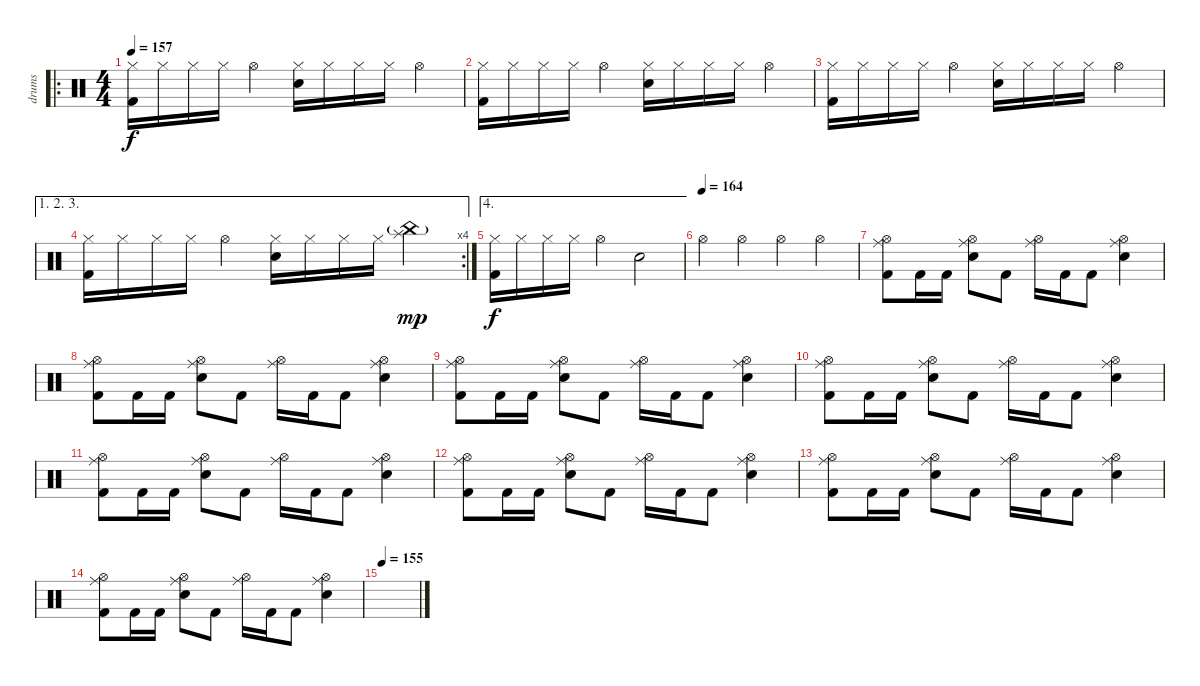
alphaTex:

\track ("drums" "drums") {instrument percussion}
\staff {score}
\articulation defaults
\ro
\ts (4 4)
\tempo 157
\clef neutral
\ks c
("Hi-Hat (closed)" "Kick (hit) 2").16{dy f} "Hi-Hat (closed)".16 "Hi-Hat (closed)".16 "Hi-Hat (closed)".16 "Hi-Hat (open)".4 ("Hi-Hat (closed)" "Electric Snare (hit)").16 "Hi-Hat (closed)".16 "Hi-Hat (closed)".16 "Hi-Hat (closed)".16 "Hi-Hat (open)".4 |
("Hi-Hat (closed)" "Kick (hit) 2").16 "Hi-Hat (closed)".16 "Hi-Hat (closed)".16 "Hi-Hat (closed)".16 "Hi-Hat (open)".4 ("Hi-Hat (closed)" "Electric Snare (hit)").16 "Hi-Hat (closed)".16 "Hi-Hat (closed)".16 "Hi-Hat (closed)".16 "Hi-Hat (open)".4 |
("Hi-Hat (closed)" "Kick (hit) 2").16 "Hi-Hat (closed)".16 "Hi-Hat (closed)".16 "Hi-Hat (closed)".16 "Hi-Hat (open)".4 ("Hi-Hat (closed)" "Electric Snare (hit)").16 "Hi-Hat (closed)".16 "Hi-Hat (closed)".16 "Hi-Hat (closed)".16 "Hi-Hat (open)".4 |
\ae (1 2 3)
\rc 4
("Hi-Hat (closed)" "Kick (hit) 2").16 "Hi-Hat (closed)".16 "Hi-Hat (closed)".16 "Hi-Hat (closed)".16 "Hi-Hat (open)".4 ("Hi-Hat (closed)" "Electric Snare (hit)").16 "Hi-Hat (closed)".16 "Hi-Hat (closed)".16 "Hi-Hat (closed)".16 ("China (hit)"{g} "Splash (hit)").4{dy mp} |
\ae 4
("Hi-Hat (closed)" "Kick (hit) 2").16{dy f} "Hi-Hat (closed)".16 "Hi-Hat (closed)".16 "Hi-Hat (closed)".16 "Hi-Hat (open)".4 "Electric Snare (hit)".2 |
\tempo (164)
"Hi-Hat (open)".4 "Hi-Hat (open)".4 "Hi-Hat (open)".4 "Hi-Hat (open)".4 |
("Hi-Hat (open)" "Ride (middle)" "Kick (hit) 2").8 "Kick (hit) 2".16 "Kick (hit) 2".16 ("Hi-Hat (open)" "Ride (middle)" "Electric Snare (hit)").8 "Kick (hit) 2".8 ("Hi-Hat (open)" "Ride (middle)").16 "Kick (hit) 2".16 "Kick (hit) 2".8 ("Hi-Hat (open)" "Ride (middle)" "Electric Snare (hit)").4 |
("Hi-Hat (open)" "Ride (middle)" "Kick (hit) 2").8 "Kick (hit) 2".16 "Kick (hit) 2".16 ("Hi-Hat (open)" "Ride (middle)" "Electric Snare (hit)").8 "Kick (hit) 2".8 ("Hi-Hat (open)" "Ride (middle)").16 "Kick (hit) 2".16 "Kick (hit) 2".8 ("Hi-Hat (open)" "Ride (middle)" "Electric Snare (hit)").4 |
("Hi-Hat (open)" "Ride (middle)" "Kick (hit) 2").8 "Kick (hit) 2".16 "Kick (hit) 2".16 ("Hi-Hat (open)" "Ride (middle)" "Electric Snare (hit)").8 "Kick (hit) 2".8 ("Hi-Hat (open)" "Ride (middle)").16 "Kick (hit) 2".16 "Kick (hit) 2".8 ("Hi-Hat (open)" "Ride (middle)" "Electric Snare (hit)").4 |
("Hi-Hat (open)" "Ride (middle)" "Kick (hit) 2").8 "Kick (hit) 2".16 "Kick (hit) 2".16 ("Hi-Hat (open)" "Ride (middle)" "Electric Snare (hit)").8 "Kick (hit) 2".8 ("Hi-Hat (open)" "Ride (middle)").16 "Kick (hit) 2".16 "Kick (hit) 2".8 ("Hi-Hat (open)" "Ride (middle)" "Electric Snare (hit)").4 |
("Hi-Hat (open)" "Ride (middle)" "Kick (hit) 2").8 "Kick (hit) 2".16 "Kick (hit) 2".16 ("Hi-Hat (open)" "Ride (middle)" "Electric Snare (hit)").8 "Kick (hit) 2".8 ("Hi-Hat (open)" "Ride (middle)").16 "Kick (hit) 2".16 "Kick (hit) 2".8 ("Hi-Hat (open)" "Ride (middle)" "Electric Snare (hit)").4 |
("Hi-Hat (open)" "Ride (middle)" "Kick (hit) 2").8 "Kick (hit) 2".16 "Kick (hit) 2".16 ("Hi-Hat (open)" "Ride (middle)" "Electric Snare (hit)").8 "Kick (hit) 2".8 ("Hi-Hat (open)" "Ride (middle)").16 "Kick (hit) 2".16 "Kick (hit) 2".8 ("Hi-Hat (open)" "Ride (middle)" "Electric Snare (hit)").4 |
("Hi-Hat (open)" "Ride (middle)" "Kick (hit) 2").8 "Kick (hit) 2".16 "Kick (hit) 2".16 ("Hi-Hat (open)" "Ride (middle)" "Electric Snare (hit)").8 "Kick (hit) 2".8 ("Hi-Hat (open)" "Ride (middle)").16 "Kick (hit) 2".16 "Kick (hit) 2".8 ("Hi-Hat (open)" "Ride (middle)" "Electric Snare (hit)").4 |
("Hi-Hat (open)" "Ride (middle)" "Kick (hit) 2").8 "Kick (hit) 2".16 "Kick (hit) 2".16 ("Hi-Hat (open)" "Ride (middle)" "Electric Snare (hit)").8 "Kick (hit) 2".8 ("Hi-Hat (open)" "Ride (middle)").16 "Kick (hit) 2".16 "Kick (hit) 2".8 ("Hi-Hat (open)" "Ride (middle)" "Electric Snare (hit)").4 |
\tempo 155
